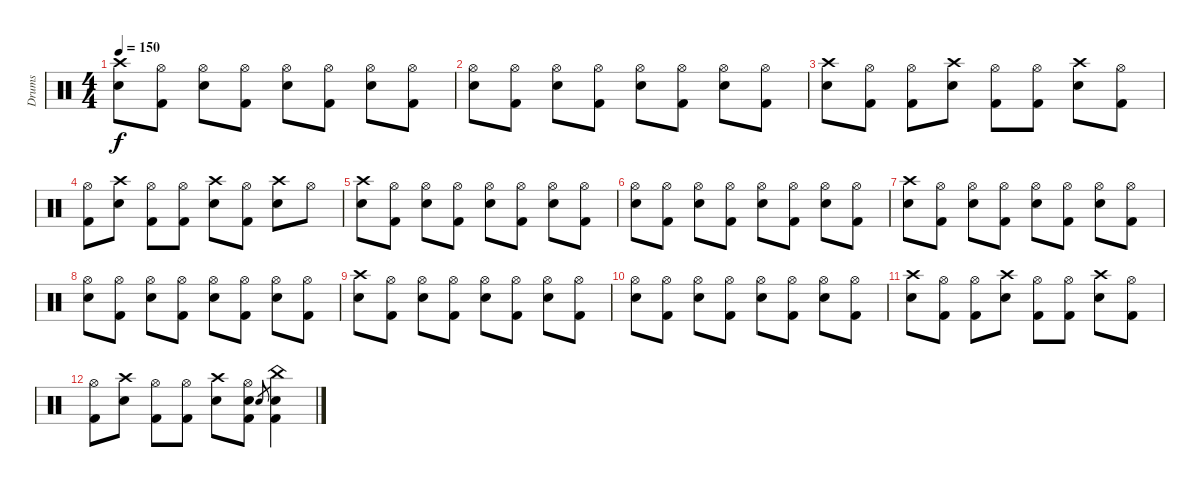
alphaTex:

\track ("Drums" "Drums") {instrument percussion}
\staff {score}
\articulation defaults
\ts (4 4)
\tempo 150
\clef neutral
\ks c
("Crash high (hit)" "Snare (hit) 2").8{dy f} ("Hi-Hat (open)" "Kick (hit) 2").8 ("Hi-Hat (open)" "Snare (hit) 2").8 ("Hi-Hat (open)" "Kick (hit) 2").8 ("Hi-Hat (open)" "Snare (hit) 2").8 ("Hi-Hat (open)" "Kick (hit) 2").8 ("Hi-Hat (open)" "Snare (hit) 2").8 ("Hi-Hat (open)" "Kick (hit) 2").8 |
("Hi-Hat (open)" "Snare (hit) 2").8 ("Hi-Hat (open)" "Kick (hit) 2").8 ("Hi-Hat (open)" "Snare (hit) 2").8 ("Hi-Hat (open)" "Kick (hit) 2").8 ("Hi-Hat (open)" "Snare (hit) 2").8 ("Hi-Hat (open)" "Kick (hit) 2").8 ("Hi-Hat (open)" "Snare (hit) 2").8 ("Hi-Hat (open)" "Kick (hit) 2").8 |
("Crash high (hit)" "Snare (hit) 2").8 ("Hi-Hat (open)" "Kick (hit) 2").8 ("Hi-Hat (open)" "Kick (hit) 2").8 ("Crash high (hit)" "Snare (hit) 2").8 ("Hi-Hat (open)" "Kick (hit) 2").8 ("Hi-Hat (open)" "Kick (hit) 2").8 ("Crash high (hit)" "Snare (hit) 2").8 ("Hi-Hat (open)" "Kick (hit) 2").8 |
("Hi-Hat (open)" "Kick (hit) 2").8 ("Crash high (hit)" "Snare (hit) 2").8 ("Hi-Hat (open)" "Kick (hit) 2").8 ("Hi-Hat (open)" "Kick (hit) 2").8 ("Crash high (hit)" "Snare (hit) 2").8 ("Hi-Hat (open)" "Kick (hit) 2").8 ("Crash high (hit)" "Snare (hit) 2").8 "Hi-Hat (open)".8 |
("Crash high (hit)" "Snare (hit) 2").8 ("Hi-Hat (open)" "Kick (hit) 2").8 ("Hi-Hat (open)" "Snare (hit) 2").8 ("Hi-Hat (open)" "Kick (hit) 2").8 ("Hi-Hat (open)" "Snare (hit) 2").8 ("Hi-Hat (open)" "Kick (hit) 2").8 ("Hi-Hat (open)" "Snare (hit) 2").8 ("Hi-Hat (open)" "Kick (hit) 2").8 |
("Hi-Hat (open)" "Snare (hit) 2").8 ("Hi-Hat (open)" "Kick (hit) 2").8 ("Hi-Hat (open)" "Snare (hit) 2").8 ("Hi-Hat (open)" "Kick (hit) 2").8 ("Hi-Hat (open)" "Snare (hit) 2").8 ("Hi-Hat (open)" "Kick (hit) 2").8 ("Hi-Hat (open)" "Snare (hit) 2").8 ("Hi-Hat (open)" "Kick (hit) 2").8 |
("Crash high (hit)" "Snare (hit) 2").8 ("Hi-Hat (open)" "Kick (hit) 2").8 ("Hi-Hat (open)" "Snare (hit) 2").8 ("Hi-Hat (open)" "Kick (hit) 2").8 ("Hi-Hat (open)" "Snare (hit) 2").8 ("Hi-Hat (open)" "Kick (hit) 2").8 ("Hi-Hat (open)" "Snare (hit) 2").8 ("Hi-Hat (open)" "Kick (hit) 2").8 |
("Hi-Hat (open)" "Snare (hit) 2").8 ("Hi-Hat (open)" "Kick (hit) 2").8 ("Hi-Hat (open)" "Snare (hit) 2").8 ("Hi-Hat (open)" "Kick (hit) 2").8 ("Hi-Hat (open)" "Snare (hit) 2").8 ("Hi-Hat (open)" "Kick (hit) 2").8 ("Hi-Hat (open)" "Snare (hit) 2").8 ("Hi-Hat (open)" "Kick (hit) 2").8 |
("Crash high (hit)" "Snare (hit) 2").8 ("Hi-Hat (open)" "Kick (hit) 2").8 ("Hi-Hat (open)" "Snare (hit) 2").8 ("Hi-Hat (open)" "Kick (hit) 2").8 ("Hi-Hat (open)" "Snare (hit) 2").8 ("Hi-Hat (open)" "Kick (hit) 2").8 ("Hi-Hat (open)" "Snare (hit) 2").8 ("Hi-Hat (open)" "Kick (hit) 2").8 |
("Hi-Hat (open)" "Snare (hit) 2").8 ("Hi-Hat (open)" "Kick (hit) 2").8 ("Hi-Hat (open)" "Snare (hit) 2").8 ("Hi-Hat (open)" "Kick (hit) 2").8 ("Hi-Hat (open)" "Snare (hit) 2").8 ("Hi-Hat (open)" "Kick (hit) 2").8 ("Hi-Hat (open)" "Snare (hit) 2").8 ("Hi-Hat (open)" "Kick (hit) 2").8 |
("Crash high (hit)" "Snare (hit) 2").8 ("Hi-Hat (open)" "Kick (hit) 2").8 ("Hi-Hat (open)" "Kick (hit) 2").8 ("Crash high (hit)" "Snare (hit) 2").8 ("Hi-Hat (open)" "Kick (hit) 2").8 ("Hi-Hat (open)" "Kick (hit) 2").8 ("Crash high (hit)" "Snare (hit) 2").8 ("Hi-Hat (open)" "Kick (hit) 2").8 |
("Hi-Hat (open)" "Kick (hit) 2").8 ("Crash high (hit)" "Snare (hit) 2").8 ("Hi-Hat (open)" "Kick (hit) 2").8 ("Hi-Hat (open)" "Kick (hit) 2").8 ("Crash high (hit)" "Snare (hit) 2").8 ("Hi-Hat (open)" "Snare (hit) 2" "Kick (hit) 2").8 "Snare (hit) 2".8{gr} ("China (hit)" "Snare (hit) 2" "Kick (hit) 2").4
